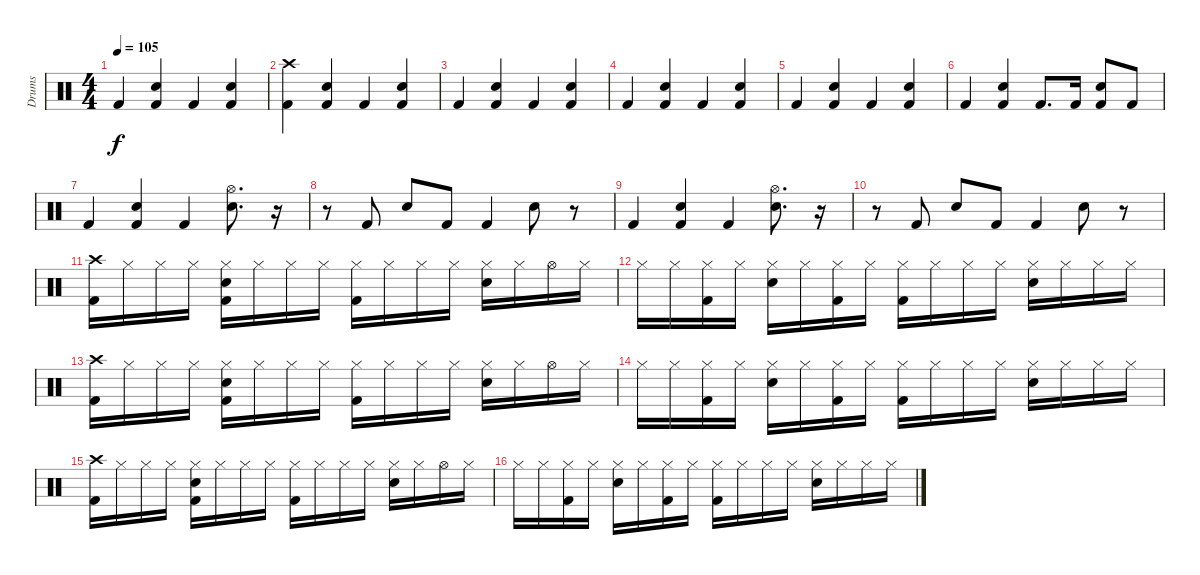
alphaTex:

\track ("Drums" "Drums") {instrument percussion}
\staff {score}
\articulation defaults
\ts (4 4)
\tempo 105
\clef neutral
\ks c "Kick (hit) 2".4{dy f}
("Kick (hit) 2" "Snare (hit) 2").4 "Kick (hit) 2".4 ("Kick (hit) 2" "Snare (hit) 2").4 |
("Kick (hit) 2" "Crash high (hit)").4 ("Kick (hit) 2" "Snare (hit) 2").4 "Kick (hit) 2".4 ("Kick (hit) 2" "Snare (hit) 2").4 |
"Kick (hit) 2".4 ("Kick (hit) 2" "Snare (hit) 2").4 "Kick (hit) 2".4 ("Kick (hit) 2" "Snare (hit) 2").4 |
"Kick (hit) 2".4 ("Kick (hit) 2" "Snare (hit) 2").4 "Kick (hit) 2".4 ("Kick (hit) 2" "Snare (hit) 2").4 |
"Kick (hit) 2".4 ("Kick (hit) 2" "Snare (hit) 2").4 "Kick (hit) 2".4 ("Kick (hit) 2" "Snare (hit) 2").4 |
"Kick (hit) 2".4 ("Kick (hit) 2" "Snare (hit) 2").4 "Kick (hit) 2".8{d} "Kick (hit) 2".16 ("Snare (hit) 2" "Kick (hit) 2").8 "Kick (hit) 2".8 |
"Kick (hit) 2".4 ("Snare (hit) 2" "Kick (hit) 2").4 "Kick (hit) 2".4 ("Snare (hit) 2" "Hi-Hat (open)").8{d} r.16 |
r.8 "Kick (hit) 2".8 "Snare (hit) 2".8 "Kick (hit) 2".8 "Kick (hit) 2".4 "Snare (hit) 2".8 r.8 |
"Kick (hit) 2".4 ("Snare (hit) 2" "Kick (hit) 2").4 "Kick (hit) 2".4 ("Snare (hit) 2" "Hi-Hat (open)").8{d} r.16 |
r.8 "Kick (hit) 2".8 "Snare (hit) 2".8 "Kick (hit) 2".8 "Kick (hit) 2".4 "Snare (hit) 2".8 r.8 |
("Kick (hit) 2" "Crash high (hit)").16 "Hi-Hat (closed)".16 "Hi-Hat (closed)".16 "Hi-Hat (closed)".16 ("Snare (hit) 2" "Kick (hit) 2" "Hi-Hat (closed)").16 "Hi-Hat (closed)".16 "Hi-Hat (closed)".16 "Hi-Hat (closed)".16 ("Kick (hit) 2" "Hi-Hat (closed)").16 "Hi-Hat (closed)".16 "Hi-Hat (closed)".16 "Hi-Hat (closed)".16 ("Snare (hit) 2" "Hi-Hat (closed)").16 "Hi-Hat (closed)".16 "Hi-Hat (open)".16 "Hi-Hat (closed)".16 |
"Hi-Hat (closed)".16 "Hi-Hat (closed)".16 ("Kick (hit) 2" "Hi-Hat (closed)").16 "Hi-Hat (closed)".16 ("Snare (hit) 2" "Hi-Hat (closed)").16 "Hi-Hat (closed)".16 ("Kick (hit) 2" "Hi-Hat (closed)").16 "Hi-Hat (closed)".16 ("Kick (hit) 2" "Hi-Hat (closed)").16 "Hi-Hat (closed)".16 "Hi-Hat (closed)".16 "Hi-Hat (closed)".16 ("Snare (hit) 2" "Hi-Hat (closed)").16 "Hi-Hat (closed)".16 "Hi-Hat (closed)".16 "Hi-Hat (closed)".16 |
("Kick (hit) 2" "Crash high (hit)").16 "Hi-Hat (closed)".16 "Hi-Hat (closed)".16 "Hi-Hat (closed)".16 ("Snare (hit) 2" "Kick (hit) 2" "Hi-Hat (closed)").16 "Hi-Hat (closed)".16 "Hi-Hat (closed)".16 "Hi-Hat (closed)".16 ("Kick (hit) 2" "Hi-Hat (closed)").16 "Hi-Hat (closed)".16 "Hi-Hat (closed)".16 "Hi-Hat (closed)".16 ("Snare (hit) 2" "Hi-Hat (closed)").16 "Hi-Hat (closed)".16 "Hi-Hat (open)".16 "Hi-Hat (closed)".16 |
"Hi-Hat (closed)".16 "Hi-Hat (closed)".16 ("Kick (hit) 2" "Hi-Hat (closed)").16 "Hi-Hat (closed)".16 ("Snare (hit) 2" "Hi-Hat (closed)").16 "Hi-Hat (closed)".16 ("Kick (hit) 2" "Hi-Hat (closed)").16 "Hi-Hat (closed)".16 ("Kick (hit) 2" "Hi-Hat (closed)").16 "Hi-Hat (closed)".16 "Hi-Hat (closed)".16 "Hi-Hat (closed)".16 ("Snare (hit) 2" "Hi-Hat (closed)").16 "Hi-Hat (closed)".16 "Hi-Hat (closed)".16 "Hi-Hat (closed)".16 |
("Kick (hit) 2" "Crash high (hit)").16 "Hi-Hat (closed)".16 "Hi-Hat (closed)".16 "Hi-Hat (closed)".16 ("Snare (hit) 2" "Kick (hit) 2" "Hi-Hat (closed)").16 "Hi-Hat (closed)".16 "Hi-Hat (closed)".16 "Hi-Hat (closed)".16 ("Kick (hit) 2" "Hi-Hat (closed)").16 "Hi-Hat (closed)".16 "Hi-Hat (closed)".16 "Hi-Hat (closed)".16 ("Snare (hit) 2" "Hi-Hat (closed)").16 "Hi-Hat (closed)".16 "Hi-Hat (open)".16 "Hi-Hat (closed)".16 |
"Hi-Hat (closed)".16 "Hi-Hat (closed)".16 ("Kick (hit) 2" "Hi-Hat (closed)").16 "Hi-Hat (closed)".16 ("Snare (hit) 2" "Hi-Hat (closed)").16 "Hi-Hat (closed)".16 ("Kick (hit) 2" "Hi-Hat (closed)").16 "Hi-Hat (closed)".16 ("Kick (hit) 2" "Hi-Hat (closed)").16 "Hi-Hat (closed)".16 "Hi-Hat (closed)".16 "Hi-Hat (closed)".16 ("Snare (hit) 2" "Hi-Hat (closed)").16 "Hi-Hat (closed)".16 "Hi-Hat (closed)".16 "Hi-Hat (closed)".16
